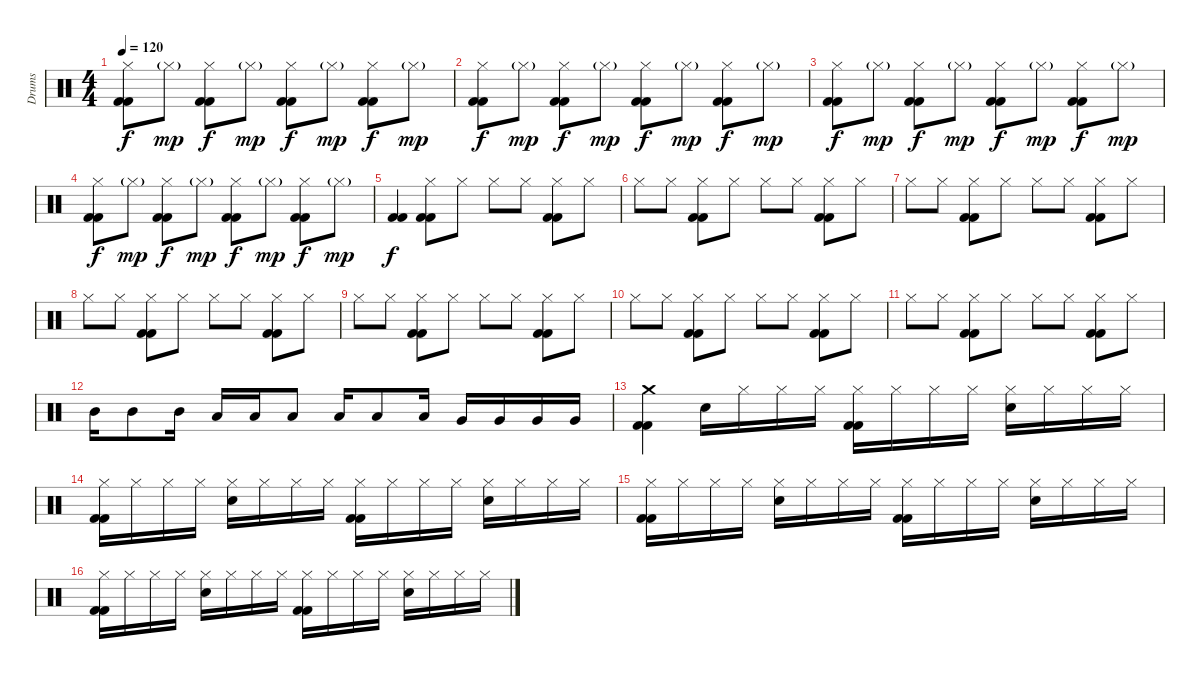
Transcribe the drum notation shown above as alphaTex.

\track ("Drums" "Drums") {instrument percussion}
\staff {score}
\articulation defaults
\ts (4 4)
\tempo 120
\clef neutral
\ks c
("Hi-Hat (closed)" "Kick (hit) 2" "Kick (hit) 2").8{dy f} "Hi-Hat (closed)"{g}.8{dy mp} ("Hi-Hat (closed)" "Kick (hit) 2" "Kick (hit) 2").8{dy f} "Hi-Hat (closed)"{g}.8{dy mp} ("Hi-Hat (closed)" "Kick (hit) 2" "Kick (hit) 2").8{dy f} "Hi-Hat (closed)"{g}.8{dy mp} ("Hi-Hat (closed)" "Kick (hit) 2" "Kick (hit) 2").8{dy f} "Hi-Hat (closed)"{g}.8{dy mp} |
("Hi-Hat (closed)" "Kick (hit) 2" "Kick (hit) 2").8{dy f} "Hi-Hat (closed)"{g}.8{dy mp} ("Hi-Hat (closed)" "Kick (hit) 2" "Kick (hit) 2").8{dy f} "Hi-Hat (closed)"{g}.8{dy mp} ("Hi-Hat (closed)" "Kick (hit) 2" "Kick (hit) 2").8{dy f} "Hi-Hat (closed)"{g}.8{dy mp} ("Hi-Hat (closed)" "Kick (hit) 2" "Kick (hit) 2").8{dy f} "Hi-Hat (closed)"{g}.8{dy mp} |
("Hi-Hat (closed)" "Kick (hit) 2" "Kick (hit) 2").8{dy f} "Hi-Hat (closed)"{g}.8{dy mp} ("Hi-Hat (closed)" "Kick (hit) 2" "Kick (hit) 2").8{dy f} "Hi-Hat (closed)"{g}.8{dy mp} ("Hi-Hat (closed)" "Kick (hit) 2" "Kick (hit) 2").8{dy f} "Hi-Hat (closed)"{g}.8{dy mp} ("Hi-Hat (closed)" "Kick (hit) 2" "Kick (hit) 2").8{dy f} "Hi-Hat (closed)"{g}.8{dy mp} |
("Hi-Hat (closed)" "Kick (hit) 2" "Kick (hit) 2").8{dy f} "Hi-Hat (closed)"{g}.8{dy mp} ("Hi-Hat (closed)" "Kick (hit) 2" "Kick (hit) 2").8{dy f} "Hi-Hat (closed)"{g}.8{dy mp} ("Hi-Hat (closed)" "Kick (hit) 2" "Kick (hit) 2").8{dy f} "Hi-Hat (closed)"{g}.8{dy mp} ("Hi-Hat (closed)" "Kick (hit) 2" "Kick (hit) 2").8{dy f} "Hi-Hat (closed)"{g}.8{dy mp} |
("Kick (hit) 2" "Kick (hit) 2").4{dy f} ("Hi-Hat (closed)" "Kick (hit) 2" "Kick (hit) 2").8 "Hi-Hat (closed)".8 "Hi-Hat (closed)".8 "Hi-Hat (closed)".8 ("Hi-Hat (closed)" "Kick (hit) 2" "Kick (hit) 2").8 "Hi-Hat (closed)".8 |
"Hi-Hat (closed)".8 "Hi-Hat (closed)".8 ("Hi-Hat (closed)" "Kick (hit) 2" "Kick (hit) 2").8 "Hi-Hat (closed)".8 "Hi-Hat (closed)".8 "Hi-Hat (closed)".8 ("Hi-Hat (closed)" "Kick (hit) 2" "Kick (hit) 2").8 "Hi-Hat (closed)".8 |
"Hi-Hat (closed)".8 "Hi-Hat (closed)".8 ("Hi-Hat (closed)" "Kick (hit) 2" "Kick (hit) 2").8 "Hi-Hat (closed)".8 "Hi-Hat (closed)".8 "Hi-Hat (closed)".8 ("Hi-Hat (closed)" "Kick (hit) 2" "Kick (hit) 2").8 "Hi-Hat (closed)".8 |
"Hi-Hat (closed)".8 "Hi-Hat (closed)".8 ("Hi-Hat (closed)" "Kick (hit) 2" "Kick (hit) 2").8 "Hi-Hat (closed)".8 "Hi-Hat (closed)".8 "Hi-Hat (closed)".8 ("Hi-Hat (closed)" "Kick (hit) 2" "Kick (hit) 2").8 "Hi-Hat (closed)".8 |
"Hi-Hat (closed)".8 "Hi-Hat (closed)".8 ("Hi-Hat (closed)" "Kick (hit) 2" "Kick (hit) 2").8 "Hi-Hat (closed)".8 "Hi-Hat (closed)".8 "Hi-Hat (closed)".8 ("Hi-Hat (closed)" "Kick (hit) 2" "Kick (hit) 2").8 "Hi-Hat (closed)".8 |
"Hi-Hat (closed)".8 "Hi-Hat (closed)".8 ("Hi-Hat (closed)" "Kick (hit) 2" "Kick (hit) 2").8 "Hi-Hat (closed)".8 "Hi-Hat (closed)".8 "Hi-Hat (closed)".8 ("Hi-Hat (closed)" "Kick (hit) 2" "Kick (hit) 2").8 "Hi-Hat (closed)".8 |
"Hi-Hat (closed)".8 "Hi-Hat (closed)".8 ("Hi-Hat (closed)" "Kick (hit) 2" "Kick (hit) 2").8 "Hi-Hat (closed)".8 "Hi-Hat (closed)".8 "Hi-Hat (closed)".8 ("Hi-Hat (closed)" "Kick (hit) 2" "Kick (hit) 2").8 "Hi-Hat (closed)".8 |
"Mid Tom (hit)".16 "Mid Tom (hit)".8 "Mid Tom (hit)".16 "Low Tom (hit)".16 "Low Tom (hit)".16 "Low Tom (hit)".8 "Low Tom (hit)".16 "Low Tom (hit)".8 "Low Tom (hit)".16 "Very Low Tom (hit)".16 "Very Low Tom (hit)".16 "Very Low Tom (hit)".16 "Very Low Tom (hit)".16 |
("Crash medium (hit)" "Kick (hit) 2" "Kick (hit) 2").4 "Electric Snare (hit)".16 "Hi-Hat (closed)".16 "Hi-Hat (closed)".16 "Hi-Hat (closed)".16 ("Hi-Hat (closed)" "Kick (hit) 2" "Kick (hit) 2").16 "Hi-Hat (closed)".16 "Hi-Hat (closed)".16 "Hi-Hat (closed)".16 ("Hi-Hat (closed)" "Electric Snare (hit)").16 "Hi-Hat (closed)".16 "Hi-Hat (closed)".16 "Hi-Hat (closed)".16 |
("Hi-Hat (closed)" "Kick (hit) 2" "Kick (hit) 2").16 "Hi-Hat (closed)".16 "Hi-Hat (closed)".16 "Hi-Hat (closed)".16 ("Hi-Hat (closed)" "Electric Snare (hit)").16 "Hi-Hat (closed)".16 "Hi-Hat (closed)".16 "Hi-Hat (closed)".16 ("Hi-Hat (closed)" "Kick (hit) 2" "Kick (hit) 2").16 "Hi-Hat (closed)".16 "Hi-Hat (closed)".16 "Hi-Hat (closed)".16 ("Hi-Hat (closed)" "Electric Snare (hit)").16 "Hi-Hat (closed)".16 "Hi-Hat (closed)".16 "Hi-Hat (closed)".16 |
("Hi-Hat (closed)" "Kick (hit) 2" "Kick (hit) 2").16 "Hi-Hat (closed)".16 "Hi-Hat (closed)".16 "Hi-Hat (closed)".16 ("Hi-Hat (closed)" "Electric Snare (hit)").16 "Hi-Hat (closed)".16 "Hi-Hat (closed)".16 "Hi-Hat (closed)".16 ("Hi-Hat (closed)" "Kick (hit) 2" "Kick (hit) 2").16 "Hi-Hat (closed)".16 "Hi-Hat (closed)".16 "Hi-Hat (closed)".16 ("Hi-Hat (closed)" "Electric Snare (hit)").16 "Hi-Hat (closed)".16 "Hi-Hat (closed)".16 "Hi-Hat (closed)".16 |
("Hi-Hat (closed)" "Kick (hit) 2" "Kick (hit) 2").16 "Hi-Hat (closed)".16 "Hi-Hat (closed)".16 "Hi-Hat (closed)".16 ("Hi-Hat (closed)" "Electric Snare (hit)").16 "Hi-Hat (closed)".16 "Hi-Hat (closed)".16 "Hi-Hat (closed)".16 ("Hi-Hat (closed)" "Kick (hit) 2" "Kick (hit) 2").16 "Hi-Hat (closed)".16 "Hi-Hat (closed)".16 "Hi-Hat (closed)".16 ("Hi-Hat (closed)" "Electric Snare (hit)").16 "Hi-Hat (closed)".16 "Hi-Hat (closed)".16 "Hi-Hat (closed)".16
